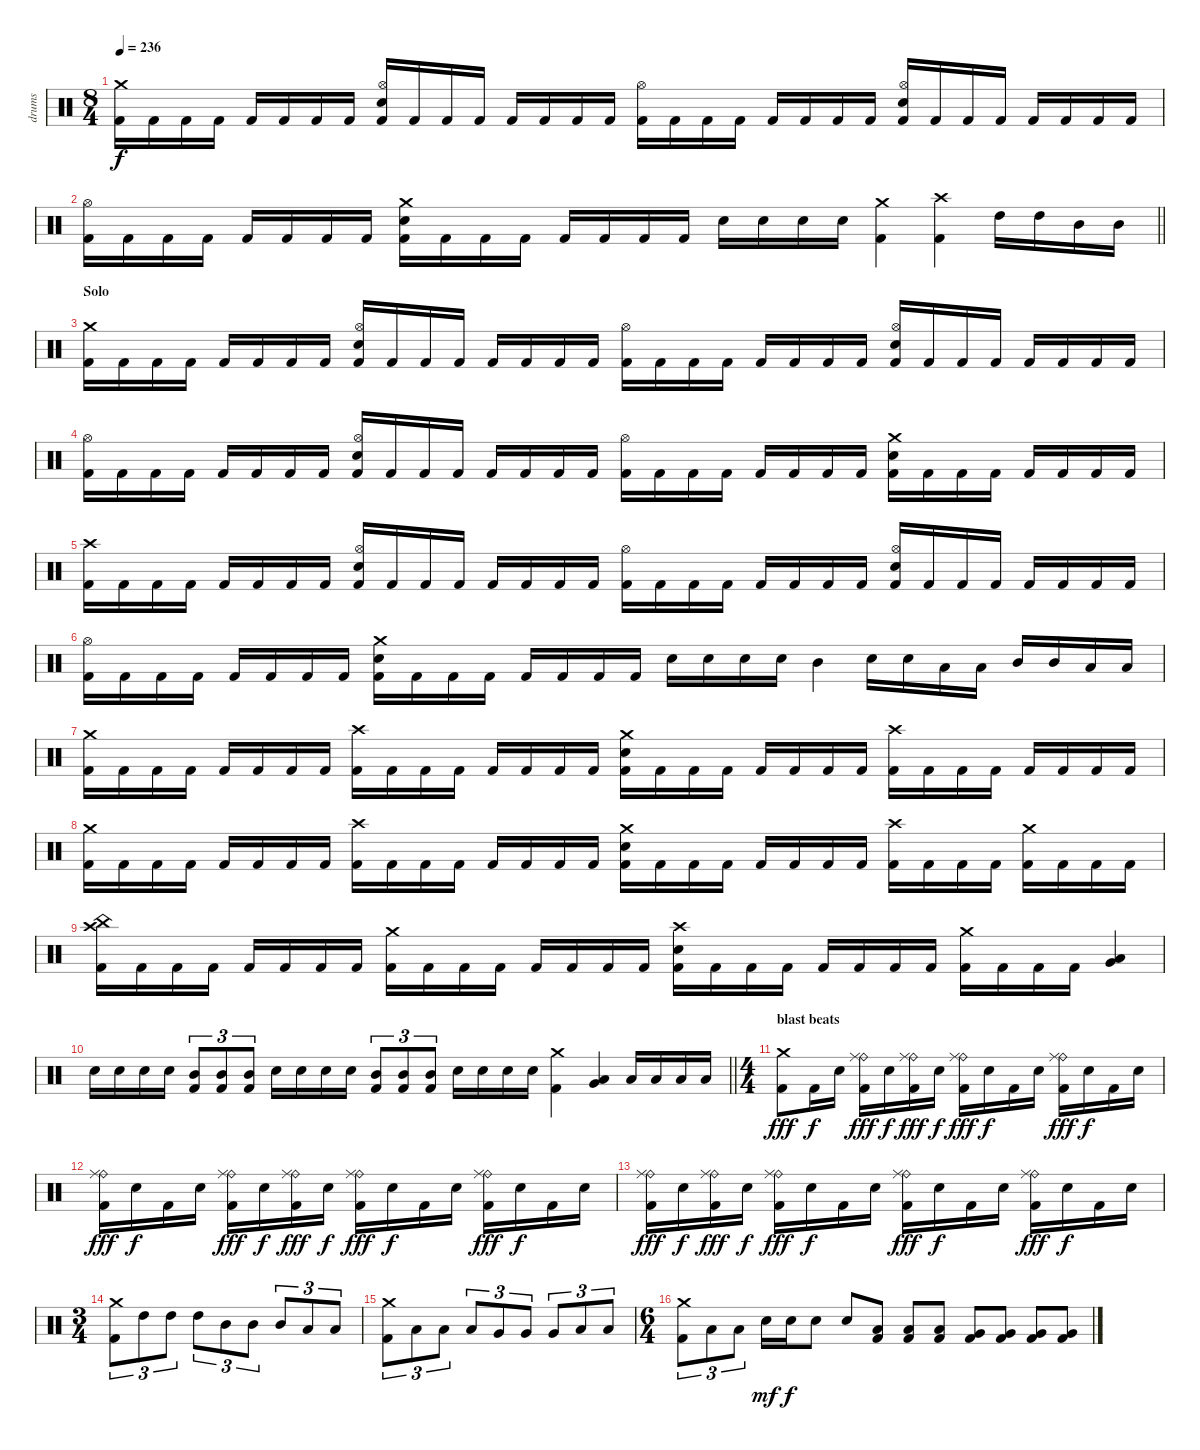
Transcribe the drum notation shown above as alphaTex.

\track ("drums" "drums") {instrument percussion}
\staff {score}
\articulation defaults
\ts (8 4)
\tempo 236
\clef neutral
\ks c
("Crash medium (hit)" "Kick (hit) 2").16{dy f} "Kick (hit) 2".16 "Kick (hit) 2".16 "Kick (hit) 2".16 "Kick (hit) 2".16 "Kick (hit) 2".16 "Kick (hit) 2".16 "Kick (hit) 2".16 ("Hi-Hat (open)" "Electric Snare (hit)" "Kick (hit) 2").16 "Kick (hit) 2".16 "Kick (hit) 2".16 "Kick (hit) 2".16 "Kick (hit) 2".16 "Kick (hit) 2".16 "Kick (hit) 2".16 "Kick (hit) 2".16 ("Hi-Hat (open)" "Kick (hit) 2").16 "Kick (hit) 2".16 "Kick (hit) 2".16 "Kick (hit) 2".16 "Kick (hit) 2".16 "Kick (hit) 2".16 "Kick (hit) 2".16 "Kick (hit) 2".16 ("Hi-Hat (open)" "Electric Snare (hit)" "Kick (hit) 2").16 "Kick (hit) 2".16 "Kick (hit) 2".16 "Kick (hit) 2".16 "Kick (hit) 2".16 "Kick (hit) 2".16 "Kick (hit) 2".16 "Kick (hit) 2".16 |
\barLineRight lightlight
("Hi-Hat (open)" "Kick (hit) 2").16 "Kick (hit) 2".16 "Kick (hit) 2".16 "Kick (hit) 2".16 "Kick (hit) 2".16 "Kick (hit) 2".16 "Kick (hit) 2".16 "Kick (hit) 2".16 ("Crash medium (hit)" "Electric Snare (hit)" "Kick (hit) 2").16 "Kick (hit) 2".16 "Kick (hit) 2".16 "Kick (hit) 2".16 "Kick (hit) 2".16 "Kick (hit) 2".16 "Kick (hit) 2".16 "Kick (hit) 2".16 "Electric Snare (hit)".16 "Electric Snare (hit)".16 "Electric Snare (hit)".16 "Electric Snare (hit)".16 ("Crash medium (hit)" "Kick (hit) 2").4 ("Crash high (hit)" "Kick (hit) 2").4 "High Tom (hit)".16 "High Tom (hit)".16 "Mid Tom (hit)".16 "Mid Tom (hit)".16 |
\section ("" "Solo")
("Crash medium (hit)" "Kick (hit) 2").16 "Kick (hit) 2".16 "Kick (hit) 2".16 "Kick (hit) 2".16 "Kick (hit) 2".16 "Kick (hit) 2".16 "Kick (hit) 2".16 "Kick (hit) 2".16 ("Hi-Hat (open)" "Electric Snare (hit)" "Kick (hit) 2").16 "Kick (hit) 2".16 "Kick (hit) 2".16 "Kick (hit) 2".16 "Kick (hit) 2".16 "Kick (hit) 2".16 "Kick (hit) 2".16 "Kick (hit) 2".16 ("Hi-Hat (open)" "Kick (hit) 2").16 "Kick (hit) 2".16 "Kick (hit) 2".16 "Kick (hit) 2".16 "Kick (hit) 2".16 "Kick (hit) 2".16 "Kick (hit) 2".16 "Kick (hit) 2".16 ("Hi-Hat (open)" "Electric Snare (hit)" "Kick (hit) 2").16 "Kick (hit) 2".16 "Kick (hit) 2".16 "Kick (hit) 2".16 "Kick (hit) 2".16 "Kick (hit) 2".16 "Kick (hit) 2".16 "Kick (hit) 2".16 |
("Hi-Hat (open)" "Kick (hit) 2").16 "Kick (hit) 2".16 "Kick (hit) 2".16 "Kick (hit) 2".16 "Kick (hit) 2".16 "Kick (hit) 2".16 "Kick (hit) 2".16 "Kick (hit) 2".16 ("Hi-Hat (open)" "Electric Snare (hit)" "Kick (hit) 2").16 "Kick (hit) 2".16 "Kick (hit) 2".16 "Kick (hit) 2".16 "Kick (hit) 2".16 "Kick (hit) 2".16 "Kick (hit) 2".16 "Kick (hit) 2".16 ("Hi-Hat (open)" "Kick (hit) 2").16 "Kick (hit) 2".16 "Kick (hit) 2".16 "Kick (hit) 2".16 "Kick (hit) 2".16 "Kick (hit) 2".16 "Kick (hit) 2".16 "Kick (hit) 2".16 ("Crash medium (hit)" "Electric Snare (hit)" "Kick (hit) 2").16 "Kick (hit) 2".16 "Kick (hit) 2".16 "Kick (hit) 2".16 "Kick (hit) 2".16 "Kick (hit) 2".16 "Kick (hit) 2".16 "Kick (hit) 2".16 |
("Crash high (hit)" "Kick (hit) 2").16 "Kick (hit) 2".16 "Kick (hit) 2".16 "Kick (hit) 2".16 "Kick (hit) 2".16 "Kick (hit) 2".16 "Kick (hit) 2".16 "Kick (hit) 2".16 ("Hi-Hat (open)" "Electric Snare (hit)" "Kick (hit) 2").16 "Kick (hit) 2".16 "Kick (hit) 2".16 "Kick (hit) 2".16 "Kick (hit) 2".16 "Kick (hit) 2".16 "Kick (hit) 2".16 "Kick (hit) 2".16 ("Hi-Hat (open)" "Kick (hit) 2").16 "Kick (hit) 2".16 "Kick (hit) 2".16 "Kick (hit) 2".16 "Kick (hit) 2".16 "Kick (hit) 2".16 "Kick (hit) 2".16 "Kick (hit) 2".16 ("Hi-Hat (open)" "Electric Snare (hit)" "Kick (hit) 2").16 "Kick (hit) 2".16 "Kick (hit) 2".16 "Kick (hit) 2".16 "Kick (hit) 2".16 "Kick (hit) 2".16 "Kick (hit) 2".16 "Kick (hit) 2".16 |
("Hi-Hat (open)" "Kick (hit) 2").16 "Kick (hit) 2".16 "Kick (hit) 2".16 "Kick (hit) 2".16 "Kick (hit) 2".16 "Kick (hit) 2".16 "Kick (hit) 2".16 "Kick (hit) 2".16 ("Crash medium (hit)" "Electric Snare (hit)" "Kick (hit) 2").16 "Kick (hit) 2".16 "Kick (hit) 2".16 "Kick (hit) 2".16 "Kick (hit) 2".16 "Kick (hit) 2".16 "Kick (hit) 2".16 "Kick (hit) 2".16 "Electric Snare (hit)".16 "Electric Snare (hit)".16 "Electric Snare (hit)".16 "Electric Snare (hit)".16 "Mid Tom (hit)".4 "Electric Snare (hit)".16 "Electric Snare (hit)".16 "Low Tom (hit)".16 "Low Tom (hit)".16 "Mid Tom (hit)".16 "Mid Tom (hit)".16 "Low Tom (hit)".16 "Low Tom (hit)".16 |
("Crash medium (hit)" "Kick (hit) 2").16 "Kick (hit) 2".16 "Kick (hit) 2".16 "Kick (hit) 2".16 "Kick (hit) 2".16 "Kick (hit) 2".16 "Kick (hit) 2".16 "Kick (hit) 2".16 ("Crash high (hit)" "Kick (hit) 2").16 "Kick (hit) 2".16 "Kick (hit) 2".16 "Kick (hit) 2".16 "Kick (hit) 2".16 "Kick (hit) 2".16 "Kick (hit) 2".16 "Kick (hit) 2".16 ("Crash medium (hit)" "Electric Snare (hit)" "Kick (hit) 2").16 "Kick (hit) 2".16 "Kick (hit) 2".16 "Kick (hit) 2".16 "Kick (hit) 2".16 "Kick (hit) 2".16 "Kick (hit) 2".16 "Kick (hit) 2".16 ("Crash high (hit)" "Kick (hit) 2").16 "Kick (hit) 2".16 "Kick (hit) 2".16 "Kick (hit) 2".16 "Kick (hit) 2".16 "Kick (hit) 2".16 "Kick (hit) 2".16 "Kick (hit) 2".16 |
("Crash medium (hit)" "Kick (hit) 2").16 "Kick (hit) 2".16 "Kick (hit) 2".16 "Kick (hit) 2".16 "Kick (hit) 2".16 "Kick (hit) 2".16 "Kick (hit) 2".16 "Kick (hit) 2".16 ("Crash high (hit)" "Kick (hit) 2").16 "Kick (hit) 2".16 "Kick (hit) 2".16 "Kick (hit) 2".16 "Kick (hit) 2".16 "Kick (hit) 2".16 "Kick (hit) 2".16 "Kick (hit) 2".16 ("Crash medium (hit)" "Electric Snare (hit)" "Kick (hit) 2").16 "Kick (hit) 2".16 "Kick (hit) 2".16 "Kick (hit) 2".16 "Kick (hit) 2".16 "Kick (hit) 2".16 "Kick (hit) 2".16 "Kick (hit) 2".16 ("Crash high (hit)" "Kick (hit) 2").16 "Kick (hit) 2".16 "Kick (hit) 2".16 "Kick (hit) 2".16 ("Crash medium (hit)" "Kick (hit) 2").16 "Kick (hit) 2".16 "Kick (hit) 2".16 "Kick (hit) 2".16 |
("China (hit)" "Crash high (hit)" "Kick (hit) 2").16 "Kick (hit) 2".16 "Kick (hit) 2".16 "Kick (hit) 2".16 "Kick (hit) 2".16 "Kick (hit) 2".16 "Kick (hit) 2".16 "Kick (hit) 2".16 ("Crash medium (hit)" "Kick (hit) 2").16 "Kick (hit) 2".16 "Kick (hit) 2".16 "Kick (hit) 2".16 "Kick (hit) 2".16 "Kick (hit) 2".16 "Kick (hit) 2".16 "Kick (hit) 2".16 ("Crash high (hit)" "Electric Snare (hit)" "Kick (hit) 2").16 "Kick (hit) 2".16 "Kick (hit) 2".16 "Kick (hit) 2".16 "Kick (hit) 2".16 "Kick (hit) 2".16 "Kick (hit) 2".16 "Kick (hit) 2".16 ("Crash medium (hit)" "Kick (hit) 2").16 "Kick (hit) 2".16 "Kick (hit) 2".16 "Kick (hit) 2".16 ("Low Tom (hit)" "Very Low Tom (hit)").4 |
\barLineRight lightlight "Electric Snare (hit)".16 "Electric Snare (hit)".16 "Electric Snare (hit)".16 "Electric Snare (hit)".16
("Mid Tom (hit)" "Kick (hit) 2").8{tu (3 2)} ("Mid Tom (hit)" "Kick (hit) 2").8{tu (3 2)} ("Mid Tom (hit)" "Kick (hit) 2").8{tu (3 2)} "Electric Snare (hit)".16 "Electric Snare (hit)".16 "Electric Snare (hit)".16 "Electric Snare (hit)".16 ("Mid Tom (hit)" "Kick (hit) 2").8{tu (3 2)} ("Mid Tom (hit)" "Kick (hit) 2").8{tu (3 2)} ("Mid Tom (hit)" "Kick (hit) 2").8{tu (3 2)} "Electric Snare (hit)".16 "Electric Snare (hit)".16 "Electric Snare (hit)".16 "Electric Snare (hit)".16 ("Crash medium (hit)" "Kick (hit) 2").4 ("Low Tom (hit)" "Very Low Tom (hit)").4 "Low Tom (hit)".16 "Low Tom (hit)".16 "Low Tom (hit)".16 "Low Tom (hit)".16 |
\ts (4 4)
\section ("" "blast beats")
("Crash medium (hit)" "Kick (hit) 2").8{dy fff} "Kick (hit) 2".16{dy f} "Electric Snare (hit)".16 ("Ride (bell)" "Ride (middle)" "Kick (hit) 2").16{dy fff} "Electric Snare (hit)".16{dy f} ("Ride (bell)" "Ride (middle)" "Kick (hit) 2").16{dy fff} "Electric Snare (hit)".16{dy f} ("Ride (bell)" "Ride (middle)" "Kick (hit) 2").16{dy fff} "Electric Snare (hit)".16{dy f} "Kick (hit) 2".16 "Electric Snare (hit)".16 ("Ride (bell)" "Ride (middle)" "Kick (hit) 2").16{dy fff} "Electric Snare (hit)".16{dy f} "Kick (hit) 2".16 "Electric Snare (hit)".16 |
("Ride (bell)" "Ride (middle)" "Kick (hit) 2").16{dy fff} "Electric Snare (hit)".16{dy f} "Kick (hit) 2".16 "Electric Snare (hit)".16 ("Ride (bell)" "Ride (middle)" "Kick (hit) 2").16{dy fff} "Electric Snare (hit)".16{dy f} ("Ride (bell)" "Ride (middle)" "Kick (hit) 2").16{dy fff} "Electric Snare (hit)".16{dy f} ("Ride (bell)" "Ride (middle)" "Kick (hit) 2").16{dy fff} "Electric Snare (hit)".16{dy f} "Kick (hit) 2".16 "Electric Snare (hit)".16 ("Ride (bell)" "Ride (middle)" "Kick (hit) 2").16{dy fff} "Electric Snare (hit)".16{dy f} "Kick (hit) 2".16 "Electric Snare (hit)".16 |
("Ride (bell)" "Ride (middle)" "Kick (hit) 2").16{dy fff} "Electric Snare (hit)".16{dy f} ("Ride (bell)" "Ride (middle)" "Kick (hit) 2").16{dy fff} "Electric Snare (hit)".16{dy f} ("Ride (bell)" "Ride (middle)" "Kick (hit) 2").16{dy fff} "Electric Snare (hit)".16{dy f} "Kick (hit) 2".16 "Electric Snare (hit)".16 ("Ride (bell)" "Ride (middle)" "Kick (hit) 2").16{dy fff} "Electric Snare (hit)".16{dy f} "Kick (hit) 2".16 "Electric Snare (hit)".16 ("Ride (bell)" "Ride (middle)" "Kick (hit) 2").16{dy fff} "Electric Snare (hit)".16{dy f} "Kick (hit) 2".16 "Electric Snare (hit)".16 |
\ts (3 4)
("Crash medium (hit)" "Kick (hit) 2").8{tu (3 2)} "High Tom (hit)".8{tu (3 2)} "High Tom (hit)".8{tu (3 2)} "High Tom (hit)".8{tu (3 2)} "Mid Tom (hit)".8{tu (3 2)} "Mid Tom (hit)".8{tu (3 2)} "Mid Tom (hit)".8{tu (3 2)} "Low Tom (hit)".8{tu (3 2)} "Low Tom (hit)".8{tu (3 2)} |
("Crash medium (hit)" "Kick (hit) 2").8{tu (3 2)} "Low Tom (hit)".8{tu (3 2)} "Low Tom (hit)".8{tu (3 2)} "Low Tom (hit)".8{tu (3 2)} "Very Low Tom (hit)".8{tu (3 2)} "Very Low Tom (hit)".8{tu (3 2)} "Very Low Tom (hit)".8{tu (3 2)} "Low Floor Tom (hit)".8{tu (3 2)} "Low Floor Tom (hit)".8{tu (3 2)} |
\ts (6 4)
("Crash medium (hit)" "Kick (hit) 2").8{tu (3 2)} "Low Tom (hit)".8{tu (3 2)} "Low Tom (hit)".8{tu (3 2)} "Electric Snare (hit)".16{dy mf} "Electric Snare (hit)".16{dy f} "Electric Snare (hit)".8 "Electric Snare (hit)".8 ("Low Tom (hit)" "Kick (hit) 2").8 ("Low Tom (hit)" "Kick (hit) 2").8 ("Low Tom (hit)" "Kick (hit) 2").8 ("Very Low Tom (hit)" "Kick (hit) 2").8 ("Very Low Tom (hit)" "Kick (hit) 2").8 ("Very Low Tom (hit)" "Kick (hit) 2").8 ("Very Low Tom (hit)" "Kick (hit) 2").8
